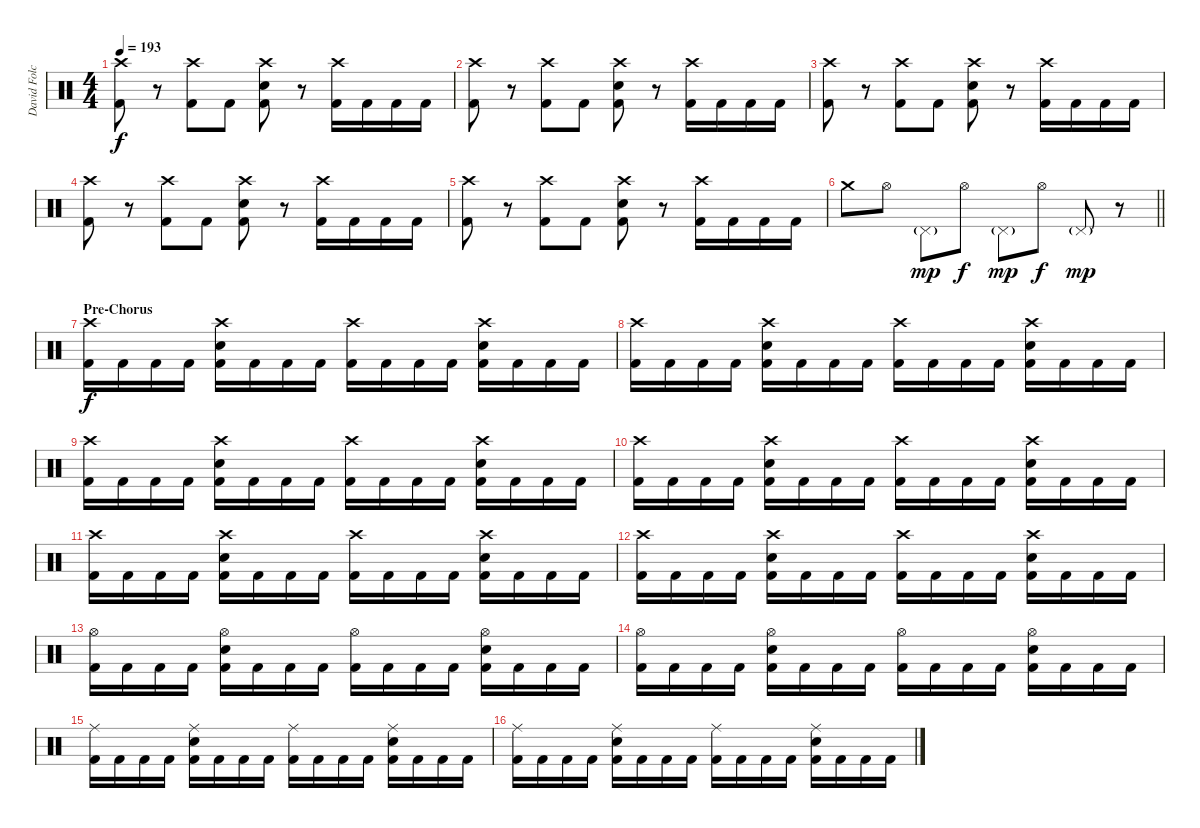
\track ("David Folchitto (Drums)" "David Folc") {instrument percussion}
\staff {score}
\articulation defaults
\ts (4 4)
\tempo 193
\clef neutral
\ks c
("Crash high (hit)" "Kick (hit) 2").8{dy f} r.8 ("Crash high (hit)" "Kick (hit) 2").8 "Kick (hit) 2".8 ("Crash high (hit)" "Snare (hit) 2" "Kick (hit) 2").8 r.8 ("Crash high (hit)" "Kick (hit) 2").16 "Kick (hit) 2".16 "Kick (hit) 2".16 "Kick (hit) 2".16 |
("Crash high (hit)" "Kick (hit) 2").8 r.8 ("Crash high (hit)" "Kick (hit) 2").8 "Kick (hit) 2".8 ("Crash high (hit)" "Snare (hit) 2" "Kick (hit) 2").8 r.8 ("Crash high (hit)" "Kick (hit) 2").16 "Kick (hit) 2".16 "Kick (hit) 2".16 "Kick (hit) 2".16 |
("Crash high (hit)" "Kick (hit) 2").8 r.8 ("Crash high (hit)" "Kick (hit) 2").8 "Kick (hit) 2".8 ("Crash high (hit)" "Snare (hit) 2" "Kick (hit) 2").8 r.8 ("Crash high (hit)" "Kick (hit) 2").16 "Kick (hit) 2".16 "Kick (hit) 2".16 "Kick (hit) 2".16 |
("Crash high (hit)" "Kick (hit) 2").8 r.8 ("Crash high (hit)" "Kick (hit) 2").8 "Kick (hit) 2".8 ("Crash high (hit)" "Snare (hit) 2" "Kick (hit) 2").8 r.8 ("Crash high (hit)" "Kick (hit) 2").16 "Kick (hit) 2".16 "Kick (hit) 2".16 "Kick (hit) 2".16 |
("Crash high (hit)" "Kick (hit) 2").8 r.8 ("Crash high (hit)" "Kick (hit) 2").8 "Kick (hit) 2".8 ("Crash high (hit)" "Snare (hit) 2" "Kick (hit) 2").8 r.8 ("Crash high (hit)" "Kick (hit) 2").16 "Kick (hit) 2".16 "Kick (hit) 2".16 "Kick (hit) 2".16 |
\barLineRight lightlight "Crash medium (hit)".8 "Hi-Hat (open)".8 "Pedal Hi-Hat (hit)"{g}.8{dy mp} "Hi-Hat (open)".8{dy f} "Pedal Hi-Hat (hit)"{g}.8{dy mp} "Hi-Hat (open)".8{dy f} "Pedal Hi-Hat (hit)"{g}.8{dy mp}
r.8 |
\section ("" "Pre-Chorus")
("Crash high (hit)" "Kick (hit) 2").16{dy f} "Kick (hit) 2".16 "Kick (hit) 2".16 "Kick (hit) 2".16 ("Crash high (hit)" "Snare (hit) 2" "Kick (hit) 2").16 "Kick (hit) 2".16 "Kick (hit) 2".16 "Kick (hit) 2".16 ("Crash high (hit)" "Kick (hit) 2").16 "Kick (hit) 2".16 "Kick (hit) 2".16 "Kick (hit) 2".16 ("Crash high (hit)" "Snare (hit) 2" "Kick (hit) 2").16 "Kick (hit) 2".16 "Kick (hit) 2".16 "Kick (hit) 2".16 |
("Crash high (hit)" "Kick (hit) 2").16 "Kick (hit) 2".16 "Kick (hit) 2".16 "Kick (hit) 2".16 ("Crash high (hit)" "Snare (hit) 2" "Kick (hit) 2").16 "Kick (hit) 2".16 "Kick (hit) 2".16 "Kick (hit) 2".16 ("Crash high (hit)" "Kick (hit) 2").16 "Kick (hit) 2".16 "Kick (hit) 2".16 "Kick (hit) 2".16 ("Crash high (hit)" "Snare (hit) 2" "Kick (hit) 2").16 "Kick (hit) 2".16 "Kick (hit) 2".16 "Kick (hit) 2".16 |
("Crash high (hit)" "Kick (hit) 2").16 "Kick (hit) 2".16 "Kick (hit) 2".16 "Kick (hit) 2".16 ("Crash high (hit)" "Snare (hit) 2" "Kick (hit) 2").16 "Kick (hit) 2".16 "Kick (hit) 2".16 "Kick (hit) 2".16 ("Crash high (hit)" "Kick (hit) 2").16 "Kick (hit) 2".16 "Kick (hit) 2".16 "Kick (hit) 2".16 ("Crash high (hit)" "Snare (hit) 2" "Kick (hit) 2").16 "Kick (hit) 2".16 "Kick (hit) 2".16 "Kick (hit) 2".16 |
("Crash high (hit)" "Kick (hit) 2").16 "Kick (hit) 2".16 "Kick (hit) 2".16 "Kick (hit) 2".16 ("Crash high (hit)" "Snare (hit) 2" "Kick (hit) 2").16 "Kick (hit) 2".16 "Kick (hit) 2".16 "Kick (hit) 2".16 ("Crash high (hit)" "Kick (hit) 2").16 "Kick (hit) 2".16 "Kick (hit) 2".16 "Kick (hit) 2".16 ("Crash high (hit)" "Snare (hit) 2" "Kick (hit) 2").16 "Kick (hit) 2".16 "Kick (hit) 2".16 "Kick (hit) 2".16 |
("Crash high (hit)" "Kick (hit) 2").16 "Kick (hit) 2".16 "Kick (hit) 2".16 "Kick (hit) 2".16 ("Crash high (hit)" "Snare (hit) 2" "Kick (hit) 2").16 "Kick (hit) 2".16 "Kick (hit) 2".16 "Kick (hit) 2".16 ("Crash high (hit)" "Kick (hit) 2").16 "Kick (hit) 2".16 "Kick (hit) 2".16 "Kick (hit) 2".16 ("Crash high (hit)" "Snare (hit) 2" "Kick (hit) 2").16 "Kick (hit) 2".16 "Kick (hit) 2".16 "Kick (hit) 2".16 |
("Crash high (hit)" "Kick (hit) 2").16 "Kick (hit) 2".16 "Kick (hit) 2".16 "Kick (hit) 2".16 ("Crash high (hit)" "Snare (hit) 2" "Kick (hit) 2").16 "Kick (hit) 2".16 "Kick (hit) 2".16 "Kick (hit) 2".16 ("Crash high (hit)" "Kick (hit) 2").16 "Kick (hit) 2".16 "Kick (hit) 2".16 "Kick (hit) 2".16 ("Crash high (hit)" "Snare (hit) 2" "Kick (hit) 2").16 "Kick (hit) 2".16 "Kick (hit) 2".16 "Kick (hit) 2".16 |
("Hi-Hat (open)" "Kick (hit) 2").16 "Kick (hit) 2".16 "Kick (hit) 2".16 "Kick (hit) 2".16 ("Hi-Hat (open)" "Snare (hit) 2" "Kick (hit) 2").16 "Kick (hit) 2".16 "Kick (hit) 2".16 "Kick (hit) 2".16 ("Hi-Hat (open)" "Kick (hit) 2").16 "Kick (hit) 2".16 "Kick (hit) 2".16 "Kick (hit) 2".16 ("Hi-Hat (open)" "Snare (hit) 2" "Kick (hit) 2").16 "Kick (hit) 2".16 "Kick (hit) 2".16 "Kick (hit) 2".16 |
("Hi-Hat (open)" "Kick (hit) 2").16 "Kick (hit) 2".16 "Kick (hit) 2".16 "Kick (hit) 2".16 ("Hi-Hat (open)" "Snare (hit) 2" "Kick (hit) 2").16 "Kick (hit) 2".16 "Kick (hit) 2".16 "Kick (hit) 2".16 ("Hi-Hat (open)" "Kick (hit) 2").16 "Kick (hit) 2".16 "Kick (hit) 2".16 "Kick (hit) 2".16 ("Hi-Hat (open)" "Snare (hit) 2" "Kick (hit) 2").16 "Kick (hit) 2".16 "Kick (hit) 2".16 "Kick (hit) 2".16 |
("Ride (middle)" "Kick (hit) 2").16 "Kick (hit) 2".16 "Kick (hit) 2".16 "Kick (hit) 2".16 ("Ride (middle)" "Snare (hit) 2" "Kick (hit) 2").16 "Kick (hit) 2".16 "Kick (hit) 2".16 "Kick (hit) 2".16 ("Ride (middle)" "Kick (hit) 2").16 "Kick (hit) 2".16 "Kick (hit) 2".16 "Kick (hit) 2".16 ("Ride (middle)" "Snare (hit) 2" "Kick (hit) 2").16 "Kick (hit) 2".16 "Kick (hit) 2".16 "Kick (hit) 2".16 |
("Ride (middle)" "Kick (hit) 2").16 "Kick (hit) 2".16 "Kick (hit) 2".16 "Kick (hit) 2".16 ("Ride (middle)" "Snare (hit) 2" "Kick (hit) 2").16 "Kick (hit) 2".16 "Kick (hit) 2".16 "Kick (hit) 2".16 ("Ride (middle)" "Kick (hit) 2").16 "Kick (hit) 2".16 "Kick (hit) 2".16 "Kick (hit) 2".16 ("Ride (middle)" "Snare (hit) 2" "Kick (hit) 2").16 "Kick (hit) 2".16 "Kick (hit) 2".16 "Kick (hit) 2".16
